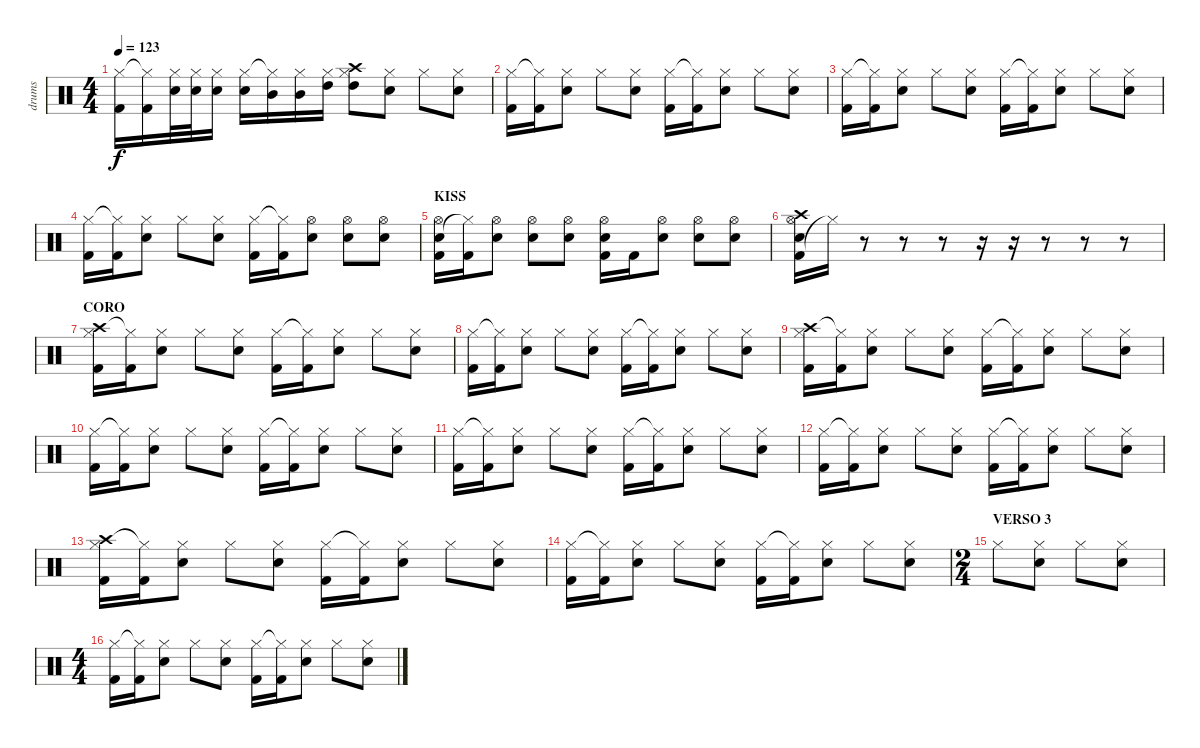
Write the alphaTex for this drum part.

\track ("drums" "drums") {instrument percussion}
\staff {score}
\articulation defaults
\ts (4 4)
\tempo 123
\clef neutral
\ks c
("Kick (hit) 2" "Hi-Hat (closed)").16{dy f} ("Kick (hit) 2" "Hi-Hat (closed)"{t}).16 ("Electric Snare (hit)" "Hi-Hat (closed)").32 ("Electric Snare (hit)" "Hi-Hat (closed)").32 ("Electric Snare (hit)" "Hi-Hat (closed)").16 ("Electric Snare (hit)" "Hi-Hat (closed)").16 ("Mid Tom (hit)" "Hi-Hat (closed)"{t}).16 ("Mid Tom (hit)" "Hi-Hat (closed)").16 ("High Tom (hit)" "Hi-Hat (closed)").16 ("Crash high (hit)" "High Tom (hit)" "Hi-Hat (closed)").8 ("Electric Snare (hit)" "Hi-Hat (closed)").8 "Hi-Hat (closed)".8 ("Electric Snare (hit)" "Hi-Hat (closed)").8 |
("Kick (hit) 2" "Hi-Hat (closed)").16 ("Kick (hit) 2" "Hi-Hat (closed)"{t}).16 ("Electric Snare (hit)" "Hi-Hat (closed)").8 "Hi-Hat (closed)".8 ("Electric Snare (hit)" "Hi-Hat (closed)").8 ("Kick (hit) 2" "Hi-Hat (closed)").16 ("Kick (hit) 2" "Hi-Hat (closed)"{t}).16 ("Electric Snare (hit)" "Hi-Hat (closed)").8 "Hi-Hat (closed)".8 ("Electric Snare (hit)" "Hi-Hat (closed)").8 |
("Kick (hit) 2" "Hi-Hat (closed)").16 ("Kick (hit) 2" "Hi-Hat (closed)"{t}).16 ("Electric Snare (hit)" "Hi-Hat (closed)").8 "Hi-Hat (closed)".8 ("Electric Snare (hit)" "Hi-Hat (closed)").8 ("Kick (hit) 2" "Hi-Hat (closed)").16 ("Kick (hit) 2" "Hi-Hat (closed)"{t}).16 ("Electric Snare (hit)" "Hi-Hat (closed)").8 "Hi-Hat (closed)".8 ("Electric Snare (hit)" "Hi-Hat (closed)").8 |
("Kick (hit) 2" "Hi-Hat (closed)").16 ("Kick (hit) 2" "Hi-Hat (closed)"{t}).16 ("Electric Snare (hit)" "Hi-Hat (closed)").8 "Hi-Hat (closed)".8 ("Electric Snare (hit)" "Hi-Hat (closed)").8 ("Kick (hit) 2" "Hi-Hat (closed)").16 ("Kick (hit) 2" "Hi-Hat (closed)"{t}).16 ("Electric Snare (hit)" "Hi-Hat (open)").8 ("Electric Snare (hit)" "Hi-Hat (open)").8 ("Electric Snare (hit)" "Hi-Hat (open)").8 |
\section ("" "KISS")
("Kick (hit) 2" "Electric Snare (hit)" "Hi-Hat (open)").16 ("Kick (hit) 2" "Hi-Hat (closed)"{t}).16 ("Electric Snare (hit)" "Hi-Hat (open)").8 ("Electric Snare (hit)" "Hi-Hat (open)").8 ("Electric Snare (hit)" "Hi-Hat (open)").8 ("Kick (hit) 2" "Electric Snare (hit)" "Hi-Hat (open)").16 "Kick (hit) 2".16 ("Electric Snare (hit)" "Hi-Hat (open)").8 ("Electric Snare (hit)" "Hi-Hat (open)").8 ("Electric Snare (hit)" "Hi-Hat (open)").8 |
("Kick (hit) 2" "Crash high (hit)" "Electric Snare (hit)" "Hi-Hat (open)").16 "Hi-Hat (closed)"{t}.16 r.8 r.8 r.8 r.16 r.16 r.8 r.8 r.8 |
\section ("" "CORO")
("Kick (hit) 2" "Crash high (hit)" "Hi-Hat (closed)").16 ("Kick (hit) 2" "Hi-Hat (closed)"{t}).16 ("Electric Snare (hit)" "Hi-Hat (closed)").8 "Hi-Hat (closed)".8 ("Electric Snare (hit)" "Hi-Hat (closed)").8 ("Kick (hit) 2" "Hi-Hat (closed)").16 ("Kick (hit) 2" "Hi-Hat (closed)"{t}).16 ("Electric Snare (hit)" "Hi-Hat (closed)").8 "Hi-Hat (closed)".8 ("Electric Snare (hit)" "Hi-Hat (closed)").8 |
("Kick (hit) 2" "Hi-Hat (closed)").16 ("Kick (hit) 2" "Hi-Hat (closed)"{t}).16 ("Electric Snare (hit)" "Hi-Hat (closed)").8 "Hi-Hat (closed)".8 ("Electric Snare (hit)" "Hi-Hat (closed)").8 ("Kick (hit) 2" "Hi-Hat (closed)").16 ("Kick (hit) 2" "Hi-Hat (closed)"{t}).16 ("Electric Snare (hit)" "Hi-Hat (closed)").8 "Hi-Hat (closed)".8 ("Electric Snare (hit)" "Hi-Hat (closed)").8 |
("Kick (hit) 2" "Crash high (hit)" "Hi-Hat (closed)").16 ("Kick (hit) 2" "Hi-Hat (closed)"{t}).16 ("Electric Snare (hit)" "Hi-Hat (closed)").8 "Hi-Hat (closed)".8 ("Electric Snare (hit)" "Hi-Hat (closed)").8 ("Kick (hit) 2" "Hi-Hat (closed)").16 ("Kick (hit) 2" "Hi-Hat (closed)"{t}).16 ("Electric Snare (hit)" "Hi-Hat (closed)").8 "Hi-Hat (closed)".8 ("Electric Snare (hit)" "Hi-Hat (closed)").8 |
("Kick (hit) 2" "Hi-Hat (closed)").16 ("Kick (hit) 2" "Hi-Hat (closed)"{t}).16 ("Electric Snare (hit)" "Hi-Hat (closed)").8 "Hi-Hat (closed)".8 ("Electric Snare (hit)" "Hi-Hat (closed)").8 ("Kick (hit) 2" "Hi-Hat (closed)").16 ("Kick (hit) 2" "Hi-Hat (closed)"{t}).16 ("Electric Snare (hit)" "Hi-Hat (closed)").8 "Hi-Hat (closed)".8 ("Electric Snare (hit)" "Hi-Hat (closed)").8 |
("Kick (hit) 2" "Hi-Hat (closed)").16 ("Kick (hit) 2" "Hi-Hat (closed)"{t}).16 ("Electric Snare (hit)" "Hi-Hat (closed)").8 "Hi-Hat (closed)".8 ("Electric Snare (hit)" "Hi-Hat (closed)").8 ("Kick (hit) 2" "Hi-Hat (closed)").16 ("Kick (hit) 2" "Hi-Hat (closed)"{t}).16 ("Electric Snare (hit)" "Hi-Hat (closed)").8 "Hi-Hat (closed)".8 ("Electric Snare (hit)" "Hi-Hat (closed)").8 |
("Kick (hit) 2" "Hi-Hat (closed)").16 ("Kick (hit) 2" "Hi-Hat (closed)"{t}).16 ("Electric Snare (hit)" "Hi-Hat (closed)").8 "Hi-Hat (closed)".8 ("Electric Snare (hit)" "Hi-Hat (closed)").8 ("Kick (hit) 2" "Hi-Hat (closed)").16 ("Kick (hit) 2" "Hi-Hat (closed)"{t}).16 ("Electric Snare (hit)" "Hi-Hat (closed)").8 "Hi-Hat (closed)".8 ("Electric Snare (hit)" "Hi-Hat (closed)").8 |
("Kick (hit) 2" "Crash high (hit)" "Hi-Hat (closed)").16 ("Kick (hit) 2" "Hi-Hat (closed)"{t}).16 ("Electric Snare (hit)" "Hi-Hat (closed)").8 "Hi-Hat (closed)".8 ("Electric Snare (hit)" "Hi-Hat (closed)").8 ("Kick (hit) 2" "Hi-Hat (closed)").16 ("Kick (hit) 2" "Hi-Hat (closed)"{t}).16 ("Electric Snare (hit)" "Hi-Hat (closed)").8 "Hi-Hat (closed)".8 ("Electric Snare (hit)" "Hi-Hat (closed)").8 |
("Kick (hit) 2" "Hi-Hat (closed)").16 ("Kick (hit) 2" "Hi-Hat (closed)"{t}).16 ("Electric Snare (hit)" "Hi-Hat (closed)").8 "Hi-Hat (closed)".8 ("Electric Snare (hit)" "Hi-Hat (closed)").8 ("Kick (hit) 2" "Hi-Hat (closed)").16 ("Kick (hit) 2" "Hi-Hat (closed)"{t}).16 ("Electric Snare (hit)" "Hi-Hat (closed)").8 "Hi-Hat (closed)".8 ("Electric Snare (hit)" "Hi-Hat (closed)").8 |
\ts (2 4)
\section ("" "VERSO 3")
"Hi-Hat (closed)".8 ("Electric Snare (hit)" "Hi-Hat (closed)").8 "Hi-Hat (closed)".8 ("Electric Snare (hit)" "Hi-Hat (closed)").8 |
\ts (4 4)
("Kick (hit) 2" "Hi-Hat (closed)").16 ("Kick (hit) 2" "Hi-Hat (closed)"{t}).16 ("Electric Snare (hit)" "Hi-Hat (closed)").8 "Hi-Hat (closed)".8 ("Electric Snare (hit)" "Hi-Hat (closed)").8 ("Kick (hit) 2" "Hi-Hat (closed)").16 ("Kick (hit) 2" "Hi-Hat (closed)"{t}).16 ("Electric Snare (hit)" "Hi-Hat (closed)").8 "Hi-Hat (closed)".8 ("Electric Snare (hit)" "Hi-Hat (closed)").8
